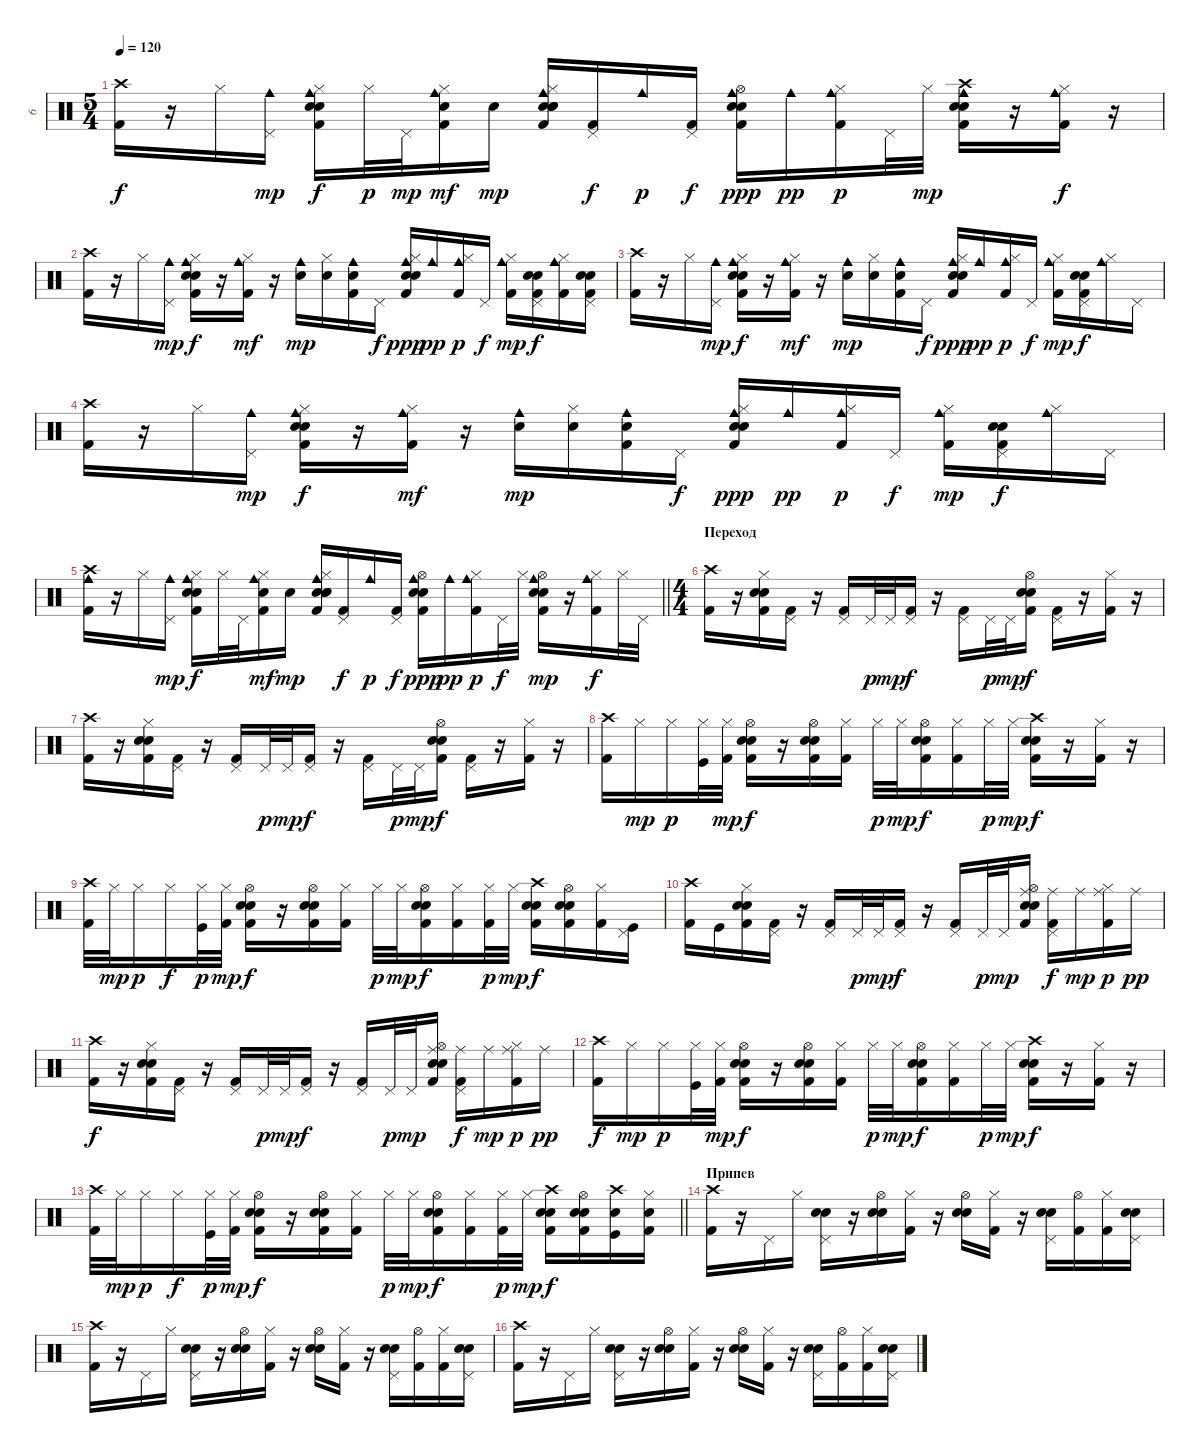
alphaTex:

\track ("6" "6") {instrument percussion}
\staff {score}
\articulation defaults
\ts (5 4)
\tempo 120
\clef neutral
\ks c
("Crash high (hit)" "Kick (hit) 2").16{dy f} r.16 "Hi-Hat (closed)".16 ("Pedal Hi-Hat (hit)" "Cowbell medium (hit)").16{dy mp} ("Hi-Hat (closed)" "Cowbell medium (hit)" "Kick (hit) 2" "Snare (hit)" "Snare (hit) 2").16{dy f} "Hi-Hat (closed)".32{dy p} "Pedal Hi-Hat (hit)".32{dy mp} ("Hi-Hat (closed)" "Snare (hit) 2" "Cowbell medium (hit)" "Kick (hit) 2").16{dy mf} "Snare (hit) 2".16{dy mp} ("Hi-Hat (closed)" "Snare (hit) 2" "Cowbell medium (hit)" "Kick (hit) 2" "Snare (hit)" "Snare (hit) 2").16 ("Pedal Hi-Hat (hit)" "Kick (hit) 2").16{dy f} "Cowbell medium (hit)".16{dy p} ("Pedal Hi-Hat (hit)" "Kick (hit) 2").16{dy f} ("Hi-Hat (open)" "Cowbell medium (hit)" "Kick (hit) 2" "Snare (hit)" "Snare (hit) 2").16{dy ppp} "Cowbell medium (hit)".16{dy pp} ("Hi-Hat (closed)" "Cowbell medium (hit)" "Kick (hit) 2").16{dy p} "Pedal Hi-Hat (hit)".32 "Hi-Hat (closed)".32{dy mp} ("Crash high (hit)" "Cowbell medium (hit)" "Kick (hit) 2" "Snare (hit)" "Snare (hit) 2").16 r.16 ("Hi-Hat (closed)" "Cowbell medium (hit)" "Kick (hit) 2").16{dy f} r.16 |
("Crash high (hit)" "Kick (hit) 2").16 r.16 "Hi-Hat (closed)".16 ("Pedal Hi-Hat (hit)" "Cowbell medium (hit)").16{dy mp} ("Hi-Hat (closed)" "Cowbell medium (hit)" "Kick (hit) 2" "Snare (hit)" "Snare (hit) 2").16{dy f} r.16 ("Hi-Hat (closed)" "Cowbell medium (hit)" "Kick (hit) 2").16{dy mf} r.16 ("Cowbell medium (hit)" "Snare (hit) 2").16{dy mp} ("Hi-Hat (closed)" "Snare (hit) 2").16 ("Cowbell medium (hit)" "Snare (hit) 2" "Kick (hit) 2").16 "Pedal Hi-Hat (hit)".16{dy f} ("Hi-Hat (closed)" "Cowbell medium (hit)" "Kick (hit) 2" "Snare (hit)" "Snare (hit) 2").16{dy ppp} "Cowbell medium (hit)".16{dy pp} ("Hi-Hat (closed)" "Cowbell medium (hit)" "Kick (hit) 2").16{dy p} "Pedal Hi-Hat (hit)".16{dy f} ("Hi-Hat (closed)" "Cowbell medium (hit)" "Kick (hit) 2").16{dy mp} ("Pedal Hi-Hat (hit)" "Kick (hit) 2" "Snare (hit)" "Snare (hit) 2").16{dy f} ("Hi-Hat (closed)" "Cowbell medium (hit)" "Kick (hit) 2").16 ("Pedal Hi-Hat (hit)" "Kick (hit) 2" "Snare (hit)" "Snare (hit) 2").16 |
("Crash high (hit)" "Kick (hit) 2").16 r.16 "Hi-Hat (closed)".16 ("Pedal Hi-Hat (hit)" "Cowbell medium (hit)").16{dy mp} ("Hi-Hat (closed)" "Cowbell medium (hit)" "Kick (hit) 2" "Snare (hit)" "Snare (hit) 2").16{dy f} r.16 ("Hi-Hat (closed)" "Cowbell medium (hit)" "Kick (hit) 2").16{dy mf} r.16 ("Cowbell medium (hit)" "Snare (hit) 2").16{dy mp} ("Hi-Hat (closed)" "Snare (hit) 2").16 ("Cowbell medium (hit)" "Snare (hit) 2" "Kick (hit) 2").16 "Pedal Hi-Hat (hit)".16{dy f} ("Hi-Hat (closed)" "Cowbell medium (hit)" "Kick (hit) 2" "Snare (hit)" "Snare (hit) 2").16{dy ppp} "Cowbell medium (hit)".16{dy pp} ("Hi-Hat (closed)" "Cowbell medium (hit)" "Kick (hit) 2").16{dy p} "Pedal Hi-Hat (hit)".16{dy f} ("Hi-Hat (closed)" "Cowbell medium (hit)" "Kick (hit) 2").16{dy mp} ("Pedal Hi-Hat (hit)" "Kick (hit) 2" "Snare (hit)" "Snare (hit) 2").16{dy f} ("Hi-Hat (closed)" "Cowbell medium (hit)").16 "Pedal Hi-Hat (hit)".16 |
("Crash high (hit)" "Kick (hit) 2").16 r.16 "Hi-Hat (closed)".16 ("Pedal Hi-Hat (hit)" "Cowbell medium (hit)").16{dy mp} ("Hi-Hat (closed)" "Cowbell medium (hit)" "Kick (hit) 2" "Snare (hit)" "Snare (hit) 2").16{dy f} r.16 ("Hi-Hat (closed)" "Cowbell medium (hit)" "Kick (hit) 2").16{dy mf} r.16 ("Cowbell medium (hit)" "Snare (hit) 2").16{dy mp} ("Hi-Hat (closed)" "Snare (hit) 2").16 ("Cowbell medium (hit)" "Snare (hit) 2" "Kick (hit) 2").16 "Pedal Hi-Hat (hit)".16{dy f} ("Hi-Hat (closed)" "Cowbell medium (hit)" "Kick (hit) 2" "Snare (hit)" "Snare (hit) 2").16{dy ppp} "Cowbell medium (hit)".16{dy pp} ("Hi-Hat (closed)" "Cowbell medium (hit)" "Kick (hit) 2").16{dy p} "Pedal Hi-Hat (hit)".16{dy f} ("Hi-Hat (closed)" "Cowbell medium (hit)" "Kick (hit) 2").16{dy mp} ("Pedal Hi-Hat (hit)" "Kick (hit) 2" "Snare (hit)" "Snare (hit) 2").16{dy f} ("Hi-Hat (closed)" "Cowbell medium (hit)").16 "Pedal Hi-Hat (hit)".16 |
\barLineRight lightlight
("Crash high (hit)" "Cowbell medium (hit)" "Kick (hit) 2").16 r.16 "Hi-Hat (closed)".16 ("Pedal Hi-Hat (hit)" "Cowbell medium (hit)").16{dy mp} ("Hi-Hat (closed)" "Cowbell medium (hit)" "Kick (hit) 2" "Snare (hit)" "Snare (hit) 2").16{dy f} "Hi-Hat (closed)".32 "Pedal Hi-Hat (hit)".32 ("Hi-Hat (closed)" "Snare (hit) 2" "Cowbell medium (hit)" "Kick (hit) 2").16{dy mf} "Snare (hit) 2".16{dy mp} ("Hi-Hat (closed)" "Snare (hit) 2" "Cowbell medium (hit)" "Kick (hit) 2" "Snare (hit)" "Snare (hit) 2").16 ("Pedal Hi-Hat (hit)" "Kick (hit) 2").16{dy f} "Cowbell medium (hit)".16{dy p} ("Pedal Hi-Hat (hit)" "Kick (hit) 2").16{dy f} ("Hi-Hat (open)" "Cowbell medium (hit)" "Kick (hit) 2" "Snare (hit)" "Snare (hit) 2").16{dy ppp} "Cowbell medium (hit)".16{dy pp} ("Hi-Hat (closed)" "Cowbell medium (hit)" "Kick (hit) 2").16{dy p} "Pedal Hi-Hat (hit)".32{dy f} "Hi-Hat (closed)".32 ("Hi-Hat (open)" "Cowbell medium (hit)" "Kick (hit) 2" "Snare (hit)" "Snare (hit) 2").16{dy mp} r.16 ("Hi-Hat (closed)" "Cowbell medium (hit)" "Kick (hit) 2").16{dy f} "Hi-Hat (closed)".32 "Pedal Hi-Hat (hit)".32 |
\ts (4 4)
\section ("" "Переход")
("Crash high (hit)" "Kick (hit) 2").16 r.16 ("Hi-Hat (closed)" "Kick (hit) 2" "Snare (hit)" "Snare (hit) 2").16 ("Pedal Hi-Hat (hit)" "Kick (hit) 2").16 r.16 ("Pedal Hi-Hat (hit)" "Kick (hit) 2").16 "Pedal Hi-Hat (hit)".32{dy p} "Pedal Hi-Hat (hit)".32{dy mp} ("Pedal Hi-Hat (hit)" "Kick (hit) 2").16{dy f} r.16 ("Pedal Hi-Hat (hit)" "Kick (hit) 2").16 "Pedal Hi-Hat (hit)".32{dy p} "Pedal Hi-Hat (hit)".32{dy mp} ("Hi-Hat (open)" "Kick (hit) 2" "Snare (hit)" "Snare (hit) 2").16{dy f} ("Pedal Hi-Hat (hit)" "Kick (hit) 2").16 r.16 ("Hi-Hat (closed)" "Kick (hit) 2").16 r.16 |
("Crash high (hit)" "Kick (hit) 2").16 r.16 ("Hi-Hat (closed)" "Kick (hit) 2" "Snare (hit)" "Snare (hit) 2").16 ("Pedal Hi-Hat (hit)" "Kick (hit) 2").16 r.16 ("Pedal Hi-Hat (hit)" "Kick (hit) 2").16 "Pedal Hi-Hat (hit)".32{dy p} "Pedal Hi-Hat (hit)".32{dy mp} ("Pedal Hi-Hat (hit)" "Kick (hit) 2").16{dy f} r.16 ("Pedal Hi-Hat (hit)" "Kick (hit) 2").16 "Pedal Hi-Hat (hit)".32{dy p} "Pedal Hi-Hat (hit)".32{dy mp} ("Hi-Hat (open)" "Kick (hit) 2" "Snare (hit)" "Snare (hit) 2").16{dy f} ("Pedal Hi-Hat (hit)" "Kick (hit) 2").16 r.16 ("Hi-Hat (closed)" "Kick (hit) 2").16 r.16 |
("Crash high (hit)" "Kick (hit) 2").16 "Hi-Hat (closed)".16{dy mp} "Hi-Hat (closed)".16{dy p} ("Hi-Hat (closed)" "Kick (hit)").32 ("Hi-Hat (closed)" "Kick (hit) 2").32{dy mp} ("Hi-Hat (open)" "Kick (hit) 2" "Snare (hit)" "Snare (hit) 2").16{dy f} r.16 ("Hi-Hat (open)" "Kick (hit) 2" "Snare (hit)" "Snare (hit) 2").16 ("Hi-Hat (closed)" "Kick (hit) 2").16 "Hi-Hat (closed)".32{dy p} "Hi-Hat (closed)".32{dy mp} ("Hi-Hat (open)" "Kick (hit) 2" "Snare (hit)" "Snare (hit) 2").16{dy f} ("Hi-Hat (closed)" "Kick (hit) 2").16 "Hi-Hat (closed)".32{dy p} "Hi-Hat (closed)".32{dy mp} ("Crash high (hit)" "Kick (hit) 2" "Snare (hit)" "Snare (hit) 2").16{dy f} r.16 ("Hi-Hat (closed)" "Kick (hit) 2").16 r.16 |
("Crash high (hit)" "Kick (hit) 2").32 "Hi-Hat (closed)".32{dy mp} "Hi-Hat (closed)".16{dy p} "Hi-Hat (closed)".16{dy f} ("Hi-Hat (closed)" "Kick (hit)").32{dy p} ("Hi-Hat (closed)" "Kick (hit) 2").32{dy mp} ("Hi-Hat (open)" "Kick (hit) 2" "Snare (hit)" "Snare (hit) 2").16{dy f} r.16 ("Hi-Hat (open)" "Kick (hit) 2" "Snare (hit)" "Snare (hit) 2").16 ("Hi-Hat (closed)" "Kick (hit) 2").16 "Hi-Hat (closed)".32{dy p} "Hi-Hat (closed)".32{dy mp} ("Hi-Hat (open)" "Kick (hit) 2" "Snare (hit)" "Snare (hit) 2").16{dy f} ("Hi-Hat (closed)" "Kick (hit) 2").16 ("Hi-Hat (closed)" "Kick (hit) 2").32{dy p} "Hi-Hat (closed)".32{dy mp} ("Crash high (hit)" "Kick (hit) 2" "Snare (hit)" "Snare (hit) 2").16{dy f} ("Hi-Hat (open)" "Kick (hit) 2" "Snare (hit)" "Snare (hit) 2").16 ("Hi-Hat (closed)" "Kick (hit) 2").16 ("Pedal Hi-Hat (hit)" "Kick (hit)").16 |
("Crash high (hit)" "Kick (hit) 2").16 "Kick (hit)".16 ("Hi-Hat (closed)" "Kick (hit) 2" "Snare (hit)" "Snare (hit) 2").16 ("Pedal Hi-Hat (hit)" "Kick (hit) 2").16 r.16 ("Pedal Hi-Hat (hit)" "Kick (hit) 2").16 "Pedal Hi-Hat (hit)".32{dy p} "Pedal Hi-Hat (hit)".32{dy mp} ("Pedal Hi-Hat (hit)" "Kick (hit) 2").16{dy f} r.16 ("Pedal Hi-Hat (hit)" "Kick (hit) 2").16 "Pedal Hi-Hat (hit)".32{dy p} "Pedal Hi-Hat (hit)".32{dy mp} ("Hi-Hat (open)" "Ride (middle)" "Kick (hit) 2" "Snare (hit)" "Snare (hit) 2").16 ("Pedal Hi-Hat (hit)" "Ride (middle)" "Kick (hit) 2").16{dy f} "Ride (middle)".16{dy mp} ("Hi-Hat (closed)" "Ride (middle)" "Kick (hit) 2").16{dy p} "Ride (middle)".16{dy pp} |
("Crash high (hit)" "Kick (hit) 2").16{dy f} r.16 ("Hi-Hat (closed)" "Kick (hit) 2" "Snare (hit)" "Snare (hit) 2").16 ("Pedal Hi-Hat (hit)" "Kick (hit) 2").16 r.16 ("Pedal Hi-Hat (hit)" "Kick (hit) 2").16 "Pedal Hi-Hat (hit)".32{dy p} "Pedal Hi-Hat (hit)".32{dy mp} ("Pedal Hi-Hat (hit)" "Kick (hit) 2").16{dy f} r.16 ("Pedal Hi-Hat (hit)" "Kick (hit) 2").16 "Pedal Hi-Hat (hit)".32{dy p} "Pedal Hi-Hat (hit)".32{dy mp} ("Hi-Hat (open)" "Ride (middle)" "Kick (hit) 2" "Snare (hit)" "Snare (hit) 2").16 ("Pedal Hi-Hat (hit)" "Ride (middle)" "Kick (hit) 2").16{dy f} "Ride (middle)".16{dy mp} ("Hi-Hat (closed)" "Ride (middle)" "Kick (hit) 2").16{dy p} "Ride (middle)".16{dy pp} |
("Crash high (hit)" "Kick (hit) 2").16{dy f} "Hi-Hat (closed)".16{dy mp} "Hi-Hat (closed)".16{dy p} ("Hi-Hat (closed)" "Kick (hit)").32 ("Hi-Hat (closed)" "Kick (hit) 2").32{dy mp} ("Hi-Hat (open)" "Kick (hit) 2" "Snare (hit)" "Snare (hit) 2").16{dy f} r.16 ("Hi-Hat (open)" "Kick (hit) 2" "Snare (hit)" "Snare (hit) 2").16 ("Hi-Hat (closed)" "Kick (hit) 2").16 "Hi-Hat (closed)".32{dy p} "Hi-Hat (closed)".32{dy mp} ("Hi-Hat (open)" "Kick (hit) 2" "Snare (hit)" "Snare (hit) 2").16{dy f} ("Hi-Hat (closed)" "Kick (hit) 2").16 "Hi-Hat (closed)".32{dy p} "Hi-Hat (closed)".32{dy mp} ("Crash high (hit)" "Kick (hit) 2" "Snare (hit)" "Snare (hit) 2").16{dy f} r.16 ("Hi-Hat (closed)" "Kick (hit) 2").16 r.16 |
\barLineRight lightlight
("Crash high (hit)" "Kick (hit) 2").32 "Hi-Hat (closed)".32{dy mp} "Hi-Hat (closed)".16{dy p} "Hi-Hat (closed)".16{dy f} ("Hi-Hat (closed)" "Kick (hit)").32{dy p} ("Hi-Hat (closed)" "Kick (hit) 2").32{dy mp} ("Hi-Hat (open)" "Kick (hit) 2" "Snare (hit)" "Snare (hit) 2").16{dy f} r.16 ("Hi-Hat (open)" "Kick (hit) 2" "Snare (hit)" "Snare (hit) 2").16 ("Hi-Hat (closed)" "Kick (hit) 2").16 "Hi-Hat (closed)".32{dy p} "Hi-Hat (closed)".32{dy mp} ("Hi-Hat (open)" "Kick (hit) 2" "Snare (hit)" "Snare (hit) 2").16{dy f} ("Hi-Hat (closed)" "Kick (hit) 2").16 ("Hi-Hat (closed)" "Kick (hit) 2").32{dy p} "Hi-Hat (closed)".32{dy mp} ("Crash high (hit)" "Kick (hit) 2" "Snare (hit)" "Snare (hit) 2").16{dy f} ("Hi-Hat (open)" "Kick (hit) 2" "Snare (hit)" "Snare (hit) 2").16 ("Crash high (hit)" "Kick (hit)" "Snare (hit)").16 ("Hi-Hat (closed)" "Kick (hit) 2" "Snare (hit) 2").16 |
\section ("" "Припев")
("Crash high (hit)" "Kick (hit) 2").16 r.16 "Pedal Hi-Hat (hit)".16 "Hi-Hat (closed)".16 ("Pedal Hi-Hat (hit)" "Snare (hit)" "Snare (hit) 2").16 r.16 ("Hi-Hat (open)" "Snare (hit)" "Snare (hit) 2").16 ("Hi-Hat (closed)" "Kick (hit) 2").16 r.16 ("Hi-Hat (open)" "Snare (hit)" "Snare (hit) 2").16 ("Hi-Hat (closed)" "Kick (hit) 2").16 r.16 ("Pedal Hi-Hat (hit)" "Snare (hit)" "Snare (hit) 2").16 ("Hi-Hat (open)" "Kick (hit) 2").16 ("Hi-Hat (closed)" "Kick (hit) 2").16 ("Pedal Hi-Hat (hit)" "Snare (hit)" "Snare (hit) 2").16 |
("Crash high (hit)" "Kick (hit) 2").16 r.16 "Pedal Hi-Hat (hit)".16 "Hi-Hat (closed)".16 ("Pedal Hi-Hat (hit)" "Snare (hit)" "Snare (hit) 2").16 r.16 ("Hi-Hat (open)" "Snare (hit)" "Snare (hit) 2").16 ("Hi-Hat (closed)" "Kick (hit) 2").16 r.16 ("Hi-Hat (open)" "Snare (hit)" "Snare (hit) 2").16 ("Hi-Hat (closed)" "Kick (hit) 2").16 r.16 ("Pedal Hi-Hat (hit)" "Snare (hit)" "Snare (hit) 2").16 ("Hi-Hat (open)" "Kick (hit) 2").16 ("Hi-Hat (closed)" "Kick (hit) 2").16 ("Pedal Hi-Hat (hit)" "Snare (hit)" "Snare (hit) 2").16 |
("Crash high (hit)" "Kick (hit) 2").16 r.16 "Pedal Hi-Hat (hit)".16 "Hi-Hat (closed)".16 ("Pedal Hi-Hat (hit)" "Snare (hit)" "Snare (hit) 2").16 r.16 ("Hi-Hat (open)" "Snare (hit)" "Snare (hit) 2").16 ("Hi-Hat (closed)" "Kick (hit) 2").16 r.16 ("Hi-Hat (open)" "Snare (hit)" "Snare (hit) 2").16 ("Hi-Hat (closed)" "Kick (hit) 2").16 r.16 ("Pedal Hi-Hat (hit)" "Snare (hit)" "Snare (hit) 2").16 ("Hi-Hat (open)" "Kick (hit) 2").16 ("Hi-Hat (closed)" "Kick (hit) 2").16 ("Pedal Hi-Hat (hit)" "Snare (hit)" "Snare (hit) 2").16
